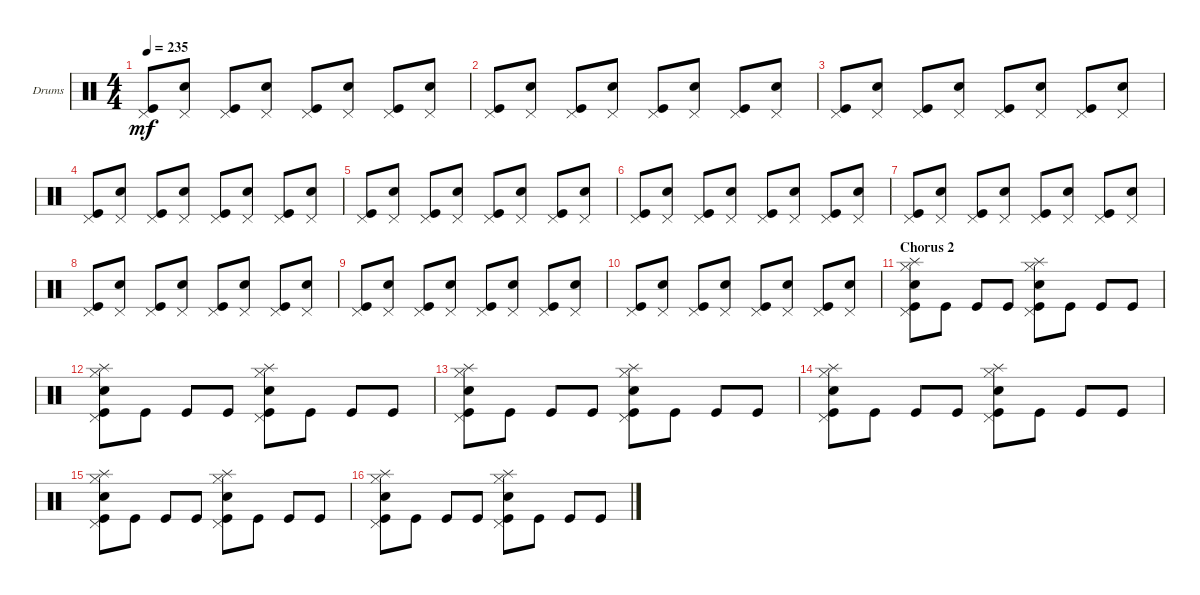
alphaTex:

\defaultSystemsLayout 4
\bracketExtendMode groupsimilarinstruments
\firstSystemTrackNameOrientation horizontal
\otherSystemsTrackNameOrientation horizontal
\track ("Drumkit" "Drums") {instrument percussion}
\staff {score}
\articulation defaults
\ts (4 4)
\tempo 235
\clef neutral
\scale
0.333333
\ks c
("Kick (hit)" "Pedal Hi-Hat (hit)").8{dy mf} ("Snare (hit) 2" "Pedal Hi-Hat (hit)").8 ("Kick (hit)" "Pedal Hi-Hat (hit)").8 ("Snare (hit) 2" "Pedal Hi-Hat (hit)").8 ("Kick (hit)" "Pedal Hi-Hat (hit)").8 ("Snare (hit) 2" "Pedal Hi-Hat (hit)").8 ("Kick (hit)" "Pedal Hi-Hat (hit)").8 ("Snare (hit) 2" "Pedal Hi-Hat (hit)").8 |
\scale
0.333333 ("Kick (hit)" "Pedal Hi-Hat (hit)").8 ("Snare (hit) 2" "Pedal Hi-Hat (hit)").8 ("Kick (hit)" "Pedal Hi-Hat (hit)").8 ("Snare (hit) 2" "Pedal Hi-Hat (hit)").8 ("Kick (hit)" "Pedal Hi-Hat (hit)").8 ("Snare (hit) 2" "Pedal Hi-Hat (hit)").8 ("Kick (hit)" "Pedal Hi-Hat (hit)").8 ("Snare (hit) 2" "Pedal Hi-Hat (hit)").8 |
\scale
0.333333 ("Kick (hit)" "Pedal Hi-Hat (hit)").8 ("Snare (hit) 2" "Pedal Hi-Hat (hit)").8 ("Kick (hit)" "Pedal Hi-Hat (hit)").8 ("Snare (hit) 2" "Pedal Hi-Hat (hit)").8 ("Kick (hit)" "Pedal Hi-Hat (hit)").8 ("Snare (hit) 2" "Pedal Hi-Hat (hit)").8 ("Kick (hit)" "Pedal Hi-Hat (hit)").8 ("Snare (hit) 2" "Pedal Hi-Hat (hit)").8 |
\scale
0.333333 ("Kick (hit)" "Pedal Hi-Hat (hit)").8 ("Snare (hit) 2" "Pedal Hi-Hat (hit)").8 ("Kick (hit)" "Pedal Hi-Hat (hit)").8 ("Snare (hit) 2" "Pedal Hi-Hat (hit)").8 ("Kick (hit)" "Pedal Hi-Hat (hit)").8 ("Snare (hit) 2" "Pedal Hi-Hat (hit)").8 ("Kick (hit)" "Pedal Hi-Hat (hit)").8 ("Snare (hit) 2" "Pedal Hi-Hat (hit)").8 |
\scale
0.333333 ("Kick (hit)" "Pedal Hi-Hat (hit)").8 ("Snare (hit) 2" "Pedal Hi-Hat (hit)").8 ("Kick (hit)" "Pedal Hi-Hat (hit)").8 ("Snare (hit) 2" "Pedal Hi-Hat (hit)").8 ("Kick (hit)" "Pedal Hi-Hat (hit)").8 ("Snare (hit) 2" "Pedal Hi-Hat (hit)").8 ("Kick (hit)" "Pedal Hi-Hat (hit)").8 ("Snare (hit) 2" "Pedal Hi-Hat (hit)").8 |
\scale
0.333333 ("Kick (hit)" "Pedal Hi-Hat (hit)").8 ("Snare (hit) 2" "Pedal Hi-Hat (hit)").8 ("Kick (hit)" "Pedal Hi-Hat (hit)").8 ("Snare (hit) 2" "Pedal Hi-Hat (hit)").8 ("Kick (hit)" "Pedal Hi-Hat (hit)").8 ("Snare (hit) 2" "Pedal Hi-Hat (hit)").8 ("Kick (hit)" "Pedal Hi-Hat (hit)").8 ("Snare (hit) 2" "Pedal Hi-Hat (hit)").8 |
\scale
0.333333 ("Kick (hit)" "Pedal Hi-Hat (hit)").8 ("Snare (hit) 2" "Pedal Hi-Hat (hit)").8 ("Kick (hit)" "Pedal Hi-Hat (hit)").8 ("Snare (hit) 2" "Pedal Hi-Hat (hit)").8 ("Kick (hit)" "Pedal Hi-Hat (hit)").8 ("Snare (hit) 2" "Pedal Hi-Hat (hit)").8 ("Kick (hit)" "Pedal Hi-Hat (hit)").8 ("Snare (hit) 2" "Pedal Hi-Hat (hit)").8 |
\scale
0.333333 ("Kick (hit)" "Pedal Hi-Hat (hit)").8 ("Snare (hit) 2" "Pedal Hi-Hat (hit)").8 ("Kick (hit)" "Pedal Hi-Hat (hit)").8 ("Snare (hit) 2" "Pedal Hi-Hat (hit)").8 ("Kick (hit)" "Pedal Hi-Hat (hit)").8 ("Snare (hit) 2" "Pedal Hi-Hat (hit)").8 ("Kick (hit)" "Pedal Hi-Hat (hit)").8 ("Snare (hit) 2" "Pedal Hi-Hat (hit)").8 |
\scale
0.333333 ("Kick (hit)" "Pedal Hi-Hat (hit)").8 ("Snare (hit) 2" "Pedal Hi-Hat (hit)").8 ("Kick (hit)" "Pedal Hi-Hat (hit)").8 ("Snare (hit) 2" "Pedal Hi-Hat (hit)").8 ("Kick (hit)" "Pedal Hi-Hat (hit)").8 ("Snare (hit) 2" "Pedal Hi-Hat (hit)").8 ("Kick (hit)" "Pedal Hi-Hat (hit)").8 ("Snare (hit) 2" "Pedal Hi-Hat (hit)").8 |
\scale
0.333333 ("Kick (hit)" "Pedal Hi-Hat (hit)").8 ("Snare (hit) 2" "Pedal Hi-Hat (hit)").8 ("Kick (hit)" "Pedal Hi-Hat (hit)").8 ("Snare (hit) 2" "Pedal Hi-Hat (hit)").8 ("Kick (hit)" "Pedal Hi-Hat (hit)").8 ("Snare (hit) 2" "Pedal Hi-Hat (hit)").8 ("Kick (hit)" "Pedal Hi-Hat (hit)").8 ("Snare (hit) 2" "Pedal Hi-Hat (hit)").8 |
\section ("" "Chorus 2")
\scale
0.333333 ("Kick (hit)" "Snare (hit) 2" "Pedal Hi-Hat (hit)" "Hi-Hat (closed)" "Splash (hit)").8 "Kick (hit)".8 "Kick (hit)".8 "Kick (hit)".8 ("Kick (hit)" "Pedal Hi-Hat (hit)" "Snare (hit) 2" "Hi-Hat (closed)" "Splash (hit)").8 "Kick (hit)".8 "Kick (hit)".8 "Kick (hit)".8 |
\scale
0.333333 ("Kick (hit)" "Snare (hit) 2" "Pedal Hi-Hat (hit)" "Hi-Hat (closed)" "Splash (hit)").8 "Kick (hit)".8 "Kick (hit)".8 "Kick (hit)".8 ("Kick (hit)" "Pedal Hi-Hat (hit)" "Snare (hit) 2" "Hi-Hat (closed)" "Splash (hit)").8 "Kick (hit)".8 "Kick (hit)".8 "Kick (hit)".8 |
\scale
0.333333 ("Kick (hit)" "Snare (hit) 2" "Pedal Hi-Hat (hit)" "Hi-Hat (closed)" "Splash (hit)").8 "Kick (hit)".8 "Kick (hit)".8 "Kick (hit)".8 ("Kick (hit)" "Pedal Hi-Hat (hit)" "Snare (hit) 2" "Hi-Hat (closed)" "Splash (hit)").8 "Kick (hit)".8 "Kick (hit)".8 "Kick (hit)".8 |
\scale
0.333333 ("Kick (hit)" "Snare (hit) 2" "Pedal Hi-Hat (hit)" "Hi-Hat (closed)" "Splash (hit)").8 "Kick (hit)".8 "Kick (hit)".8 "Kick (hit)".8 ("Kick (hit)" "Pedal Hi-Hat (hit)" "Snare (hit) 2" "Hi-Hat (closed)" "Splash (hit)").8 "Kick (hit)".8 "Kick (hit)".8 "Kick (hit)".8 |
\scale
0.333333 ("Kick (hit)" "Snare (hit) 2" "Pedal Hi-Hat (hit)" "Hi-Hat (closed)" "Splash (hit)").8 "Kick (hit)".8 "Kick (hit)".8 "Kick (hit)".8 ("Kick (hit)" "Pedal Hi-Hat (hit)" "Snare (hit) 2" "Hi-Hat (closed)" "Splash (hit)").8 "Kick (hit)".8 "Kick (hit)".8 "Kick (hit)".8 |
\scale
0.333333 ("Kick (hit)" "Snare (hit) 2" "Pedal Hi-Hat (hit)" "Hi-Hat (closed)" "Splash (hit)").8 "Kick (hit)".8 "Kick (hit)".8 "Kick (hit)".8 ("Kick (hit)" "Pedal Hi-Hat (hit)" "Snare (hit) 2" "Hi-Hat (closed)" "Splash (hit)").8 "Kick (hit)".8 "Kick (hit)".8 "Kick (hit)".8
